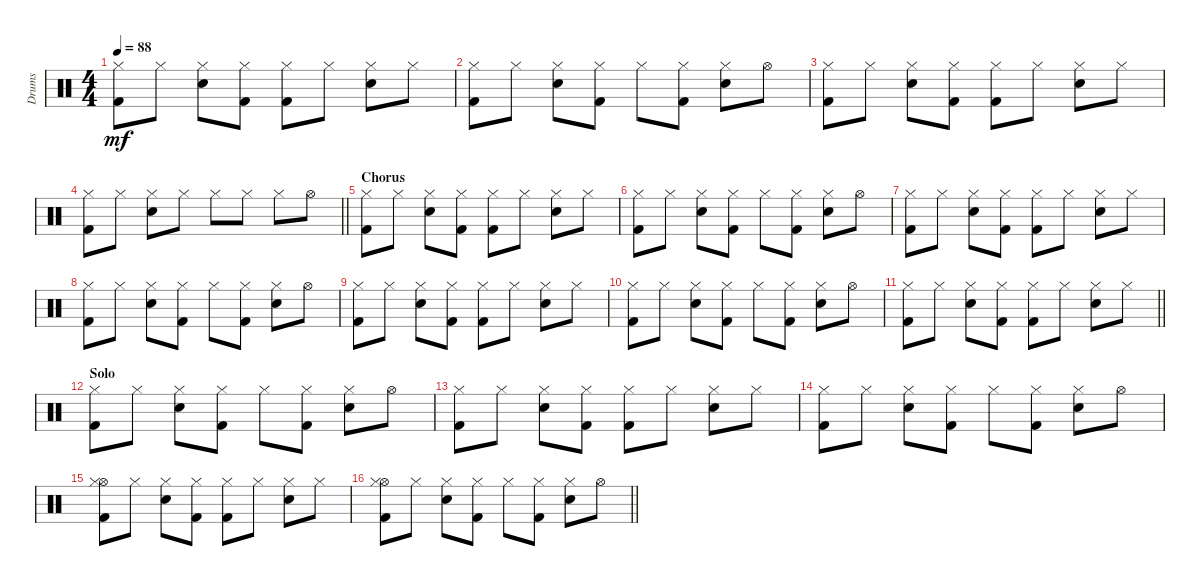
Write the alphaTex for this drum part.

\track ("Drums" "Drums") {instrument percussion}
\staff {score}
\articulation defaults
\ts (4 4)
\tempo 88
\clef neutral
\ks c
("Kick (hit) 2" "Hi-Hat (closed)").8{dy mf} "Hi-Hat (closed)".8 ("Snare (hit) 2" "Hi-Hat (closed)").8 ("Kick (hit) 2" "Hi-Hat (closed)").8 ("Kick (hit) 2" "Hi-Hat (closed)").8 "Hi-Hat (closed)".8 ("Snare (hit) 2" "Hi-Hat (closed)").8 "Hi-Hat (closed)".8 |
("Kick (hit) 2" "Hi-Hat (closed)").8 "Hi-Hat (closed)".8 ("Snare (hit) 2" "Hi-Hat (closed)").8 ("Kick (hit) 2" "Hi-Hat (closed)").8 "Hi-Hat (closed)".8 ("Kick (hit) 2" "Hi-Hat (closed)").8 ("Snare (hit) 2" "Hi-Hat (closed)").8 "Hi-Hat (open)".8 |
("Kick (hit) 2" "Hi-Hat (closed)").8 "Hi-Hat (closed)".8 ("Snare (hit) 2" "Hi-Hat (closed)").8 ("Kick (hit) 2" "Hi-Hat (closed)").8 ("Kick (hit) 2" "Hi-Hat (closed)").8 "Hi-Hat (closed)".8 ("Snare (hit) 2" "Hi-Hat (closed)").8 "Hi-Hat (closed)".8 |
\barLineRight lightlight
("Kick (hit) 2" "Hi-Hat (closed)").8 "Hi-Hat (closed)".8 ("Snare (hit) 2" "Hi-Hat (closed)").8 "Hi-Hat (closed)".8 "Hi-Hat (closed)".8 "Hi-Hat (closed)".8 "Hi-Hat (closed)".8 "Hi-Hat (open)".8 |
\section ("" "Chorus")
("Kick (hit) 2" "Hi-Hat (closed)").8 "Hi-Hat (closed)".8 ("Snare (hit) 2" "Hi-Hat (closed)").8 ("Kick (hit) 2" "Hi-Hat (closed)").8 ("Kick (hit) 2" "Hi-Hat (closed)").8 "Hi-Hat (closed)".8 ("Snare (hit) 2" "Hi-Hat (closed)").8 "Hi-Hat (closed)".8 |
("Kick (hit) 2" "Hi-Hat (closed)").8 "Hi-Hat (closed)".8 ("Snare (hit) 2" "Hi-Hat (closed)").8 ("Kick (hit) 2" "Hi-Hat (closed)").8 "Hi-Hat (closed)".8 ("Kick (hit) 2" "Hi-Hat (closed)").8 ("Snare (hit) 2" "Hi-Hat (closed)").8 "Hi-Hat (open)".8 |
("Kick (hit) 2" "Hi-Hat (closed)").8 "Hi-Hat (closed)".8 ("Snare (hit) 2" "Hi-Hat (closed)").8 ("Kick (hit) 2" "Hi-Hat (closed)").8 ("Kick (hit) 2" "Hi-Hat (closed)").8 "Hi-Hat (closed)".8 ("Snare (hit) 2" "Hi-Hat (closed)").8 "Hi-Hat (closed)".8 |
("Kick (hit) 2" "Hi-Hat (closed)").8 "Hi-Hat (closed)".8 ("Snare (hit) 2" "Hi-Hat (closed)").8 ("Kick (hit) 2" "Hi-Hat (closed)").8 "Hi-Hat (closed)".8 ("Kick (hit) 2" "Hi-Hat (closed)").8 ("Snare (hit) 2" "Hi-Hat (closed)").8 "Hi-Hat (open)".8 |
("Kick (hit) 2" "Hi-Hat (closed)").8 "Hi-Hat (closed)".8 ("Snare (hit) 2" "Hi-Hat (closed)").8 ("Kick (hit) 2" "Hi-Hat (closed)").8 ("Kick (hit) 2" "Hi-Hat (closed)").8 "Hi-Hat (closed)".8 ("Snare (hit) 2" "Hi-Hat (closed)").8 "Hi-Hat (closed)".8 |
("Kick (hit) 2" "Hi-Hat (closed)").8 "Hi-Hat (closed)".8 ("Snare (hit) 2" "Hi-Hat (closed)").8 ("Kick (hit) 2" "Hi-Hat (closed)").8 "Hi-Hat (closed)".8 ("Kick (hit) 2" "Hi-Hat (closed)").8 ("Snare (hit) 2" "Hi-Hat (closed)").8 "Hi-Hat (open)".8 |
\barLineRight lightlight
("Kick (hit) 2" "Hi-Hat (closed)").8 "Hi-Hat (closed)".8 ("Snare (hit) 2" "Hi-Hat (closed)").8 ("Kick (hit) 2" "Hi-Hat (closed)").8 ("Kick (hit) 2" "Hi-Hat (closed)").8 "Hi-Hat (closed)".8 ("Snare (hit) 2" "Hi-Hat (closed)").8 "Hi-Hat (closed)".8 |
\section ("" "Solo")
("Kick (hit) 2" "Hi-Hat (closed)").8 "Hi-Hat (closed)".8 ("Snare (hit) 2" "Hi-Hat (closed)").8 ("Kick (hit) 2" "Hi-Hat (closed)").8 "Hi-Hat (closed)".8 ("Kick (hit) 2" "Hi-Hat (closed)").8 ("Snare (hit) 2" "Hi-Hat (closed)").8 "Hi-Hat (open)".8 |
("Kick (hit) 2" "Hi-Hat (closed)").8 "Hi-Hat (closed)".8 ("Snare (hit) 2" "Hi-Hat (closed)").8 ("Kick (hit) 2" "Hi-Hat (closed)").8 ("Kick (hit) 2" "Hi-Hat (closed)").8 "Hi-Hat (closed)".8 ("Snare (hit) 2" "Hi-Hat (closed)").8 "Hi-Hat (closed)".8 |
("Kick (hit) 2" "Hi-Hat (closed)").8 "Hi-Hat (closed)".8 ("Snare (hit) 2" "Hi-Hat (closed)").8 ("Kick (hit) 2" "Hi-Hat (closed)").8 "Hi-Hat (closed)".8 ("Kick (hit) 2" "Hi-Hat (closed)").8 ("Snare (hit) 2" "Hi-Hat (closed)").8 "Hi-Hat (open)".8 |
("Kick (hit) 2" "Hi-Hat (open)" "Hi-Hat (closed)").8 "Hi-Hat (closed)".8 ("Snare (hit) 2" "Hi-Hat (closed)").8 ("Kick (hit) 2" "Hi-Hat (closed)").8 ("Kick (hit) 2" "Hi-Hat (closed)").8 "Hi-Hat (closed)".8 ("Snare (hit) 2" "Hi-Hat (closed)").8 "Hi-Hat (closed)".8 |
\barLineRight lightlight
("Kick (hit) 2" "Hi-Hat (open)" "Hi-Hat (closed)").8 "Hi-Hat (closed)".8 ("Snare (hit) 2" "Hi-Hat (closed)").8 ("Kick (hit) 2" "Hi-Hat (closed)").8 "Hi-Hat (closed)".8 ("Kick (hit) 2" "Hi-Hat (closed)").8 ("Snare (hit) 2" "Hi-Hat (closed)").8 "Hi-Hat (open)".8
